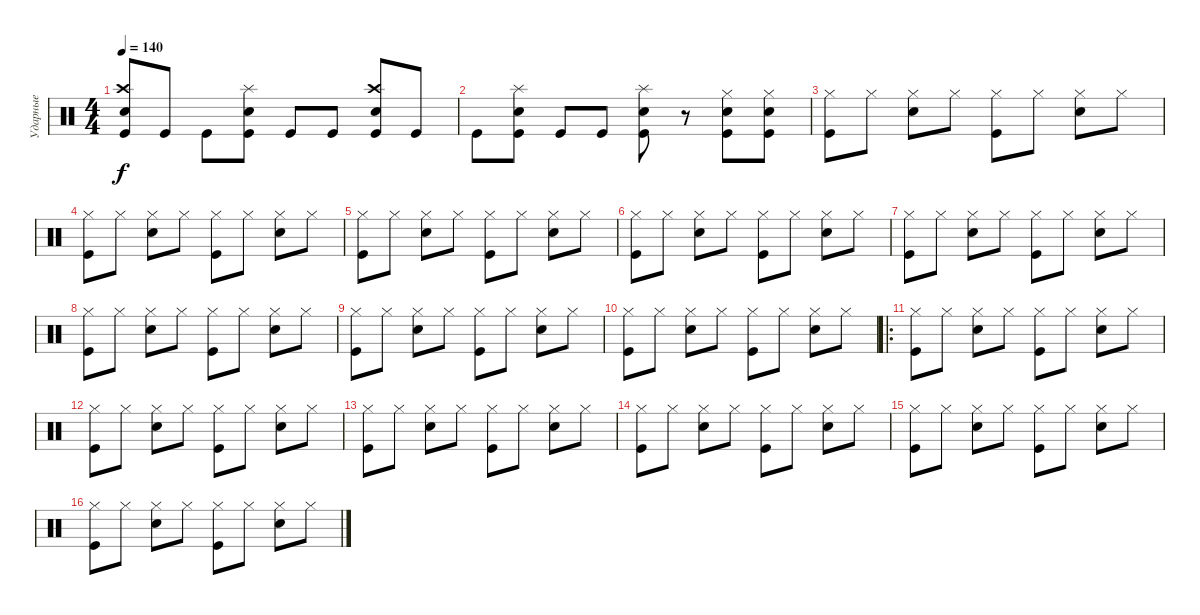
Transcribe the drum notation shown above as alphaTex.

\track ("Ударные" "Ударные") {instrument percussion}
\staff {score}
\articulation defaults
\ts (4 4)
\tempo 140
\clef neutral
\ks c
("Kick (hit)" "Crash high (hit)" "Snare (hit) 2").8{dy f} "Kick (hit)".8 "Kick (hit)".8 ("Kick (hit)" "Splash (hit)" "Snare (hit) 2").8 "Kick (hit)".8 "Kick (hit)".8 ("Kick (hit)" "Crash high (hit)" "Snare (hit) 2").8 "Kick (hit)".8 |
"Kick (hit)".8 ("Kick (hit)" "Splash (hit)" "Snare (hit) 2").8 "Kick (hit)".8 "Kick (hit)".8 ("Kick (hit)" "Splash (hit)" "Snare (hit) 2").8 r.8 ("Kick (hit)" "Hi-Hat (closed)" "Snare (hit) 2").8 ("Kick (hit)" "Hi-Hat (closed)" "Snare (hit) 2").8 |
("Hi-Hat (closed)" "Kick (hit)").8 "Hi-Hat (closed)".8 ("Hi-Hat (closed)" "Snare (hit) 2").8 "Hi-Hat (closed)".8 ("Hi-Hat (closed)" "Kick (hit)").8 "Hi-Hat (closed)".8 ("Hi-Hat (closed)" "Snare (hit) 2").8 "Hi-Hat (closed)".8 |
("Hi-Hat (closed)" "Kick (hit)").8 "Hi-Hat (closed)".8 ("Hi-Hat (closed)" "Snare (hit) 2").8 "Hi-Hat (closed)".8 ("Hi-Hat (closed)" "Kick (hit)").8 "Hi-Hat (closed)".8 ("Hi-Hat (closed)" "Snare (hit) 2").8 "Hi-Hat (closed)".8 |
("Hi-Hat (closed)" "Kick (hit)").8 "Hi-Hat (closed)".8 ("Hi-Hat (closed)" "Snare (hit) 2").8 "Hi-Hat (closed)".8 ("Hi-Hat (closed)" "Kick (hit)").8 "Hi-Hat (closed)".8 ("Hi-Hat (closed)" "Snare (hit) 2").8 "Hi-Hat (closed)".8 |
("Hi-Hat (closed)" "Kick (hit)").8 "Hi-Hat (closed)".8 ("Hi-Hat (closed)" "Snare (hit) 2").8 "Hi-Hat (closed)".8 ("Hi-Hat (closed)" "Kick (hit)").8 "Hi-Hat (closed)".8 ("Hi-Hat (closed)" "Snare (hit) 2").8 "Hi-Hat (closed)".8 |
("Hi-Hat (closed)" "Kick (hit)").8 "Hi-Hat (closed)".8 ("Hi-Hat (closed)" "Snare (hit) 2").8 "Hi-Hat (closed)".8 ("Hi-Hat (closed)" "Kick (hit)").8 "Hi-Hat (closed)".8 ("Hi-Hat (closed)" "Snare (hit) 2").8 "Hi-Hat (closed)".8 |
("Hi-Hat (closed)" "Kick (hit)").8 "Hi-Hat (closed)".8 ("Hi-Hat (closed)" "Snare (hit) 2").8 "Hi-Hat (closed)".8 ("Hi-Hat (closed)" "Kick (hit)").8 "Hi-Hat (closed)".8 ("Hi-Hat (closed)" "Snare (hit) 2").8 "Hi-Hat (closed)".8 |
("Hi-Hat (closed)" "Kick (hit)").8 "Hi-Hat (closed)".8 ("Hi-Hat (closed)" "Snare (hit) 2").8 "Hi-Hat (closed)".8 ("Hi-Hat (closed)" "Kick (hit)").8 "Hi-Hat (closed)".8 ("Hi-Hat (closed)" "Snare (hit) 2").8 "Hi-Hat (closed)".8 |
("Hi-Hat (closed)" "Kick (hit)").8 "Hi-Hat (closed)".8 ("Hi-Hat (closed)" "Snare (hit) 2").8 "Hi-Hat (closed)".8 ("Hi-Hat (closed)" "Kick (hit)").8 "Hi-Hat (closed)".8 ("Hi-Hat (closed)" "Snare (hit) 2").8 "Hi-Hat (closed)".8 |
\ro
("Hi-Hat (closed)" "Kick (hit)").8 "Hi-Hat (closed)".8 ("Hi-Hat (closed)" "Snare (hit) 2").8 "Hi-Hat (closed)".8 ("Hi-Hat (closed)" "Kick (hit)").8 "Hi-Hat (closed)".8 ("Hi-Hat (closed)" "Snare (hit) 2").8 "Hi-Hat (closed)".8 |
("Hi-Hat (closed)" "Kick (hit)").8 "Hi-Hat (closed)".8 ("Hi-Hat (closed)" "Snare (hit) 2").8 "Hi-Hat (closed)".8 ("Hi-Hat (closed)" "Kick (hit)").8 "Hi-Hat (closed)".8 ("Hi-Hat (closed)" "Snare (hit) 2").8 "Hi-Hat (closed)".8 |
("Hi-Hat (closed)" "Kick (hit)").8 "Hi-Hat (closed)".8 ("Hi-Hat (closed)" "Snare (hit) 2").8 "Hi-Hat (closed)".8 ("Hi-Hat (closed)" "Kick (hit)").8 "Hi-Hat (closed)".8 ("Hi-Hat (closed)" "Snare (hit) 2").8 "Hi-Hat (closed)".8 |
("Hi-Hat (closed)" "Kick (hit)").8 "Hi-Hat (closed)".8 ("Hi-Hat (closed)" "Snare (hit) 2").8 "Hi-Hat (closed)".8 ("Hi-Hat (closed)" "Kick (hit)").8 "Hi-Hat (closed)".8 ("Hi-Hat (closed)" "Snare (hit) 2").8 "Hi-Hat (closed)".8 |
("Hi-Hat (closed)" "Kick (hit)").8 "Hi-Hat (closed)".8 ("Hi-Hat (closed)" "Snare (hit) 2").8 "Hi-Hat (closed)".8 ("Hi-Hat (closed)" "Kick (hit)").8 "Hi-Hat (closed)".8 ("Hi-Hat (closed)" "Snare (hit) 2").8 "Hi-Hat (closed)".8 |
("Hi-Hat (closed)" "Kick (hit)").8 "Hi-Hat (closed)".8 ("Hi-Hat (closed)" "Snare (hit) 2").8 "Hi-Hat (closed)".8 ("Hi-Hat (closed)" "Kick (hit)").8 "Hi-Hat (closed)".8 ("Hi-Hat (closed)" "Snare (hit) 2").8 "Hi-Hat (closed)".8
